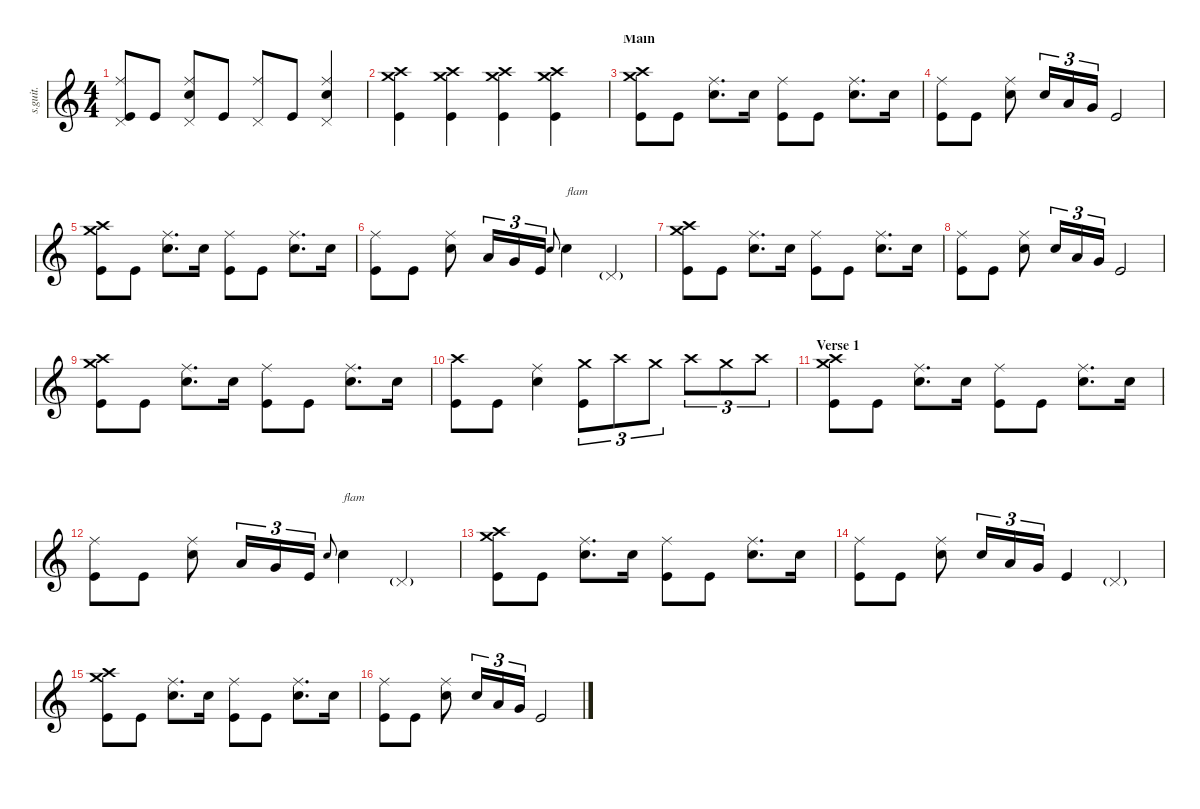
\defaultSystemsLayout 4
\hideDynamics
\bracketExtendMode nobrackets
\track ("Dave Grohl" "s.guit.") {instrument percussion}
\staff {score}
\articulation defaults
\ts (4 4)
\tempo (210 hide)
\clef g2
\ks c
("Pedal Hi-Hat (hit)" "Ride (middle)" "Kick (hit)").8{lyrics (0 "") lyrics (1 "") lyrics (2 "") lyrics (3 "") lyrics (4 "") dy f} "Kick (hit)".8{lyrics (0 "") lyrics (1 "") lyrics (2 "") lyrics (3 "") lyrics (4 "")} ("Pedal Hi-Hat (hit)" "Ride (middle)" "Snare (hit) 2").8{lyrics (0 "") lyrics (1 "") lyrics (2 "") lyrics (3 "") lyrics (4 "")} "Kick (hit)".8{lyrics (0 "") lyrics (1 "") lyrics (2 "") lyrics (3 "") lyrics (4 "")} ("Pedal Hi-Hat (hit)" "Ride (middle)").8{lyrics (0 "") lyrics (1 "") lyrics (2 "") lyrics (3 "") lyrics (4 "")} "Kick (hit)".8{lyrics (0 "") lyrics (1 "") lyrics (2 "") lyrics (3 "") lyrics (4 "")} ("Pedal Hi-Hat (hit)" "Ride (middle)" "Snare (hit) 2").4{lyrics (0 "") lyrics (1 "") lyrics (2 "") lyrics (3 "") lyrics (4 "")} |
\tempo (105 hide)
("Crash high (hit)" "Crash medium (hit)" "Kick (hit)").4{lyrics (0 "") lyrics (1 "") lyrics (2 "") lyrics (3 "") lyrics (4 "") dy mf} ("Crash high (hit)" "Crash medium (hit)" "Kick (hit)").4{lyrics (0 "") lyrics (1 "") lyrics (2 "") lyrics (3 "") lyrics (4 "")} ("Crash high (hit)" "Crash medium (hit)" "Kick (hit)").4{lyrics (0 "") lyrics (1 "") lyrics (2 "") lyrics (3 "") lyrics (4 "")} ("Crash high (hit)" "Crash medium (hit)" "Kick (hit)").4{lyrics (0 "") lyrics (1 "") lyrics (2 "") lyrics (3 "") lyrics (4 "")} |
\section ("" "Main")
("Crash high (hit)" "Crash medium (hit)" "Kick (hit)").8{lyrics (0 "") lyrics (1 "") lyrics (2 "") lyrics (3 "") lyrics (4 "")} "Kick (hit)".8{lyrics (0 "") lyrics (1 "") lyrics (2 "") lyrics (3 "") lyrics (4 "") dy f} ("Ride (middle)" "Snare (hit) 2").8{d lyrics (0 "") lyrics (1 "") lyrics (2 "") lyrics (3 "") lyrics (4 "")} "Snare (hit) 2".16{lyrics (0 "") lyrics (1 "") lyrics (2 "") lyrics (3 "") lyrics (4 "")} ("Kick (hit)" "Ride (middle)").8{lyrics (0 "") lyrics (1 "") lyrics (2 "") lyrics (3 "") lyrics (4 "") dy mf} "Kick (hit)".8{lyrics (0 "") lyrics (1 "") lyrics (2 "") lyrics (3 "") lyrics (4 "") dy f} ("Ride (middle)" "Snare (hit) 2").8{d lyrics (0 "") lyrics (1 "") lyrics (2 "") lyrics (3 "") lyrics (4 "")} "Snare (hit) 2".16{lyrics (0 "") lyrics (1 "") lyrics (2 "") lyrics (3 "") lyrics (4 "")} |
("Kick (hit)" "Ride (middle)").8{lyrics (0 "") lyrics (1 "") lyrics (2 "") lyrics (3 "") lyrics (4 "") dy mf} "Kick (hit)".8{lyrics (0 "") lyrics (1 "") lyrics (2 "") lyrics (3 "") lyrics (4 "") dy f} ("Ride (middle)" "Snare (hit) 2").8{lyrics (0 "") lyrics (1 "") lyrics (2 "") lyrics (3 "") lyrics (4 "")} "Snare (hit) 2".16{tu (3 2) lyrics (0 "") lyrics (1 "") lyrics (2 "") lyrics (3 "") lyrics (4 "")} "Low Floor Tom (hit)".16{tu (3 2) lyrics (0 "") lyrics (1 "") lyrics (2 "") lyrics (3 "") lyrics (4 "")} "Very Low Tom (hit)".16{tu (3 2) lyrics (0 "") lyrics (1 "") lyrics (2 "") lyrics (3 "") lyrics (4 "")} "Kick (hit)".2{lyrics (0 "") lyrics (1 "") lyrics (2 "") lyrics (3 "") lyrics (4 "")} |
("Crash high (hit)" "Crash medium (hit)" "Kick (hit)").8{lyrics (0 "") lyrics (1 "") lyrics (2 "") lyrics (3 "") lyrics (4 "") dy mf} "Kick (hit)".8{lyrics (0 "") lyrics (1 "") lyrics (2 "") lyrics (3 "") lyrics (4 "") dy f} ("Ride (middle)" "Snare (hit) 2").8{d lyrics (0 "") lyrics (1 "") lyrics (2 "") lyrics (3 "") lyrics (4 "")} "Snare (hit) 2".16{lyrics (0 "") lyrics (1 "") lyrics (2 "") lyrics (3 "") lyrics (4 "")} ("Kick (hit)" "Ride (middle)").8{lyrics (0 "") lyrics (1 "") lyrics (2 "") lyrics (3 "") lyrics (4 "") dy mf} "Kick (hit)".8{lyrics (0 "") lyrics (1 "") lyrics (2 "") lyrics (3 "") lyrics (4 "") dy f} ("Ride (middle)" "Snare (hit) 2").8{d lyrics (0 "") lyrics (1 "") lyrics (2 "") lyrics (3 "") lyrics (4 "")} "Snare (hit) 2".16{lyrics (0 "") lyrics (1 "") lyrics (2 "") lyrics (3 "") lyrics (4 "")} |
("Kick (hit)" "Ride (middle)").8{lyrics (0 "") lyrics (1 "") lyrics (2 "") lyrics (3 "") lyrics (4 "") dy mf} "Kick (hit)".8{lyrics (0 "") lyrics (1 "") lyrics (2 "") lyrics (3 "") lyrics (4 "") dy f} ("Ride (middle)" "Snare (hit) 2").8{lyrics (0 "") lyrics (1 "") lyrics (2 "") lyrics (3 "") lyrics (4 "")} "Low Floor Tom (hit)".16{tu (3 2) lyrics (0 "") lyrics (1 "") lyrics (2 "") lyrics (3 "") lyrics (4 "")} "Very Low Tom (hit)".16{tu (3 2) lyrics (0 "") lyrics (1 "") lyrics (2 "") lyrics (3 "") lyrics (4 "")} "Kick (hit)".16{tu (3 2) lyrics (0 "") lyrics (1 "") lyrics (2 "") lyrics (3 "") lyrics (4 "")} "Snare (hit) 2".8{lyrics (0 "") lyrics (1 "") lyrics (2 "") lyrics (3 "") lyrics (4 "") gr onbeat} "Snare (hit) 2".4{txt "flam" lyrics (0 "") lyrics (1 "") lyrics (2 "") lyrics (3 "") lyrics (4 "")} "Pedal Hi-Hat (hit)"{g}.4{lyrics (0 "") lyrics (1 "") lyrics (2 "") lyrics (3 "") lyrics (4 "")} |
("Crash high (hit)" "Crash medium (hit)" "Kick (hit)").8{lyrics (0 "") lyrics (1 "") lyrics (2 "") lyrics (3 "") lyrics (4 "") dy mf} "Kick (hit)".8{lyrics (0 "") lyrics (1 "") lyrics (2 "") lyrics (3 "") lyrics (4 "") dy f} ("Ride (middle)" "Snare (hit) 2").8{d lyrics (0 "") lyrics (1 "") lyrics (2 "") lyrics (3 "") lyrics (4 "")} "Snare (hit) 2".16{lyrics (0 "") lyrics (1 "") lyrics (2 "") lyrics (3 "") lyrics (4 "")} ("Kick (hit)" "Ride (middle)").8{lyrics (0 "") lyrics (1 "") lyrics (2 "") lyrics (3 "") lyrics (4 "") dy mf} "Kick (hit)".8{lyrics (0 "") lyrics (1 "") lyrics (2 "") lyrics (3 "") lyrics (4 "") dy f} ("Ride (middle)" "Snare (hit) 2").8{d lyrics (0 "") lyrics (1 "") lyrics (2 "") lyrics (3 "") lyrics (4 "")} "Snare (hit) 2".16{lyrics (0 "") lyrics (1 "") lyrics (2 "") lyrics (3 "") lyrics (4 "")} |
("Kick (hit)" "Ride (middle)").8{lyrics (0 "") lyrics (1 "") lyrics (2 "") lyrics (3 "") lyrics (4 "") dy mf} "Kick (hit)".8{lyrics (0 "") lyrics (1 "") lyrics (2 "") lyrics (3 "") lyrics (4 "") dy f} ("Ride (middle)" "Snare (hit) 2").8{lyrics (0 "") lyrics (1 "") lyrics (2 "") lyrics (3 "") lyrics (4 "")} "Snare (hit) 2".16{tu (3 2) lyrics (0 "") lyrics (1 "") lyrics (2 "") lyrics (3 "") lyrics (4 "")} "Low Floor Tom (hit)".16{tu (3 2) lyrics (0 "") lyrics (1 "") lyrics (2 "") lyrics (3 "") lyrics (4 "")} "Very Low Tom (hit)".16{tu (3 2) lyrics (0 "") lyrics (1 "") lyrics (2 "") lyrics (3 "") lyrics (4 "")} "Kick (hit)".2{lyrics (0 "") lyrics (1 "") lyrics (2 "") lyrics (3 "") lyrics (4 "")} |
("Crash high (hit)" "Crash medium (hit)" "Kick (hit)").8{lyrics (0 "") lyrics (1 "") lyrics (2 "") lyrics (3 "") lyrics (4 "") dy mf} "Kick (hit)".8{lyrics (0 "") lyrics (1 "") lyrics (2 "") lyrics (3 "") lyrics (4 "") dy f} ("Ride (middle)" "Snare (hit) 2").8{d lyrics (0 "") lyrics (1 "") lyrics (2 "") lyrics (3 "") lyrics (4 "")} "Snare (hit) 2".16{lyrics (0 "") lyrics (1 "") lyrics (2 "") lyrics (3 "") lyrics (4 "")} ("Kick (hit)" "Ride (middle)").8{lyrics (0 "") lyrics (1 "") lyrics (2 "") lyrics (3 "") lyrics (4 "")} "Kick (hit)".8{lyrics (0 "") lyrics (1 "") lyrics (2 "") lyrics (3 "") lyrics (4 "")} ("Ride (middle)" "Snare (hit) 2").8{d lyrics (0 "") lyrics (1 "") lyrics (2 "") lyrics (3 "") lyrics (4 "")} "Snare (hit) 2".16{lyrics (0 "") lyrics (1 "") lyrics (2 "") lyrics (3 "") lyrics (4 "")} |
("Crash high (hit)" "Kick (hit)").8{lyrics (0 "") lyrics (1 "") lyrics (2 "") lyrics (3 "") lyrics (4 "") dy mf} "Kick (hit)".8{lyrics (0 "") lyrics (1 "") lyrics (2 "") lyrics (3 "") lyrics (4 "") dy f} ("Ride (middle)" "Snare (hit) 2").4{lyrics (0 "") lyrics (1 "") lyrics (2 "") lyrics (3 "") lyrics (4 "")} ("Crash medium (hit)" "Kick (hit)").8{tu (3 2) lyrics (0 "") lyrics (1 "") lyrics (2 "") lyrics (3 "") lyrics (4 "") dy mf} "Crash high (hit)".8{tu (3 2) lyrics (0 "") lyrics (1 "") lyrics (2 "") lyrics (3 "") lyrics (4 "")} "Crash medium (hit)".8{tu (3 2) lyrics (0 "") lyrics (1 "") lyrics (2 "") lyrics (3 "") lyrics (4 "")} "Crash high (hit)".8{tu (3 2) lyrics (0 "") lyrics (1 "") lyrics (2 "") lyrics (3 "") lyrics (4 "")} "Crash medium (hit)".8{tu (3 2) lyrics (0 "") lyrics (1 "") lyrics (2 "") lyrics (3 "") lyrics (4 "")} "Crash high (hit)".8{tu (3 2) lyrics (0 "") lyrics (1 "") lyrics (2 "") lyrics (3 "") lyrics (4 "")} |
\section ("" "Verse 1")
("Crash high (hit)" "Crash medium (hit)" "Kick (hit)").8{lyrics (0 "") lyrics (1 "") lyrics (2 "") lyrics (3 "") lyrics (4 "")} "Kick (hit)".8{lyrics (0 "") lyrics (1 "") lyrics (2 "") lyrics (3 "") lyrics (4 "") dy f} ("Ride (middle)" "Snare (hit) 2").8{d lyrics (0 "") lyrics (1 "") lyrics (2 "") lyrics (3 "") lyrics (4 "")} "Snare (hit) 2".16{lyrics (0 "") lyrics (1 "") lyrics (2 "") lyrics (3 "") lyrics (4 "")} ("Ride (middle)" "Kick (hit)").8{lyrics (0 "") lyrics (1 "") lyrics (2 "") lyrics (3 "") lyrics (4 "")} "Kick (hit)".8{lyrics (0 "") lyrics (1 "") lyrics (2 "") lyrics (3 "") lyrics (4 "")} ("Ride (middle)" "Snare (hit) 2").8{d lyrics (0 "") lyrics (1 "") lyrics (2 "") lyrics (3 "") lyrics (4 "")} "Snare (hit) 2".16{lyrics (0 "") lyrics (1 "") lyrics (2 "") lyrics (3 "") lyrics (4 "")} |
("Ride (middle)" "Kick (hit)").8{lyrics (0 "") lyrics (1 "") lyrics (2 "") lyrics (3 "") lyrics (4 "")} "Kick (hit)".8{lyrics (0 "") lyrics (1 "") lyrics (2 "") lyrics (3 "") lyrics (4 "")} ("Ride (middle)" "Snare (hit) 2").8{lyrics (0 "") lyrics (1 "") lyrics (2 "") lyrics (3 "") lyrics (4 "")} "Low Floor Tom (hit)".16{tu (3 2) lyrics (0 "") lyrics (1 "") lyrics (2 "") lyrics (3 "") lyrics (4 "")} "Very Low Tom (hit)".16{tu (3 2) lyrics (0 "") lyrics (1 "") lyrics (2 "") lyrics (3 "") lyrics (4 "")} "Kick (hit)".16{tu (3 2) lyrics (0 "") lyrics (1 "") lyrics (2 "") lyrics (3 "") lyrics (4 "")} "Snare (hit) 2".8{lyrics (0 "") lyrics (1 "") lyrics (2 "") lyrics (3 "") lyrics (4 "") gr onbeat} "Snare (hit) 2".4{txt "flam" lyrics (0 "") lyrics (1 "") lyrics (2 "") lyrics (3 "") lyrics (4 "")} "Pedal Hi-Hat (hit)"{g}.4{lyrics (0 "") lyrics (1 "") lyrics (2 "") lyrics (3 "") lyrics (4 "")} |
("Crash high (hit)" "Crash medium (hit)" "Kick (hit)").8{lyrics (0 "") lyrics (1 "") lyrics (2 "") lyrics (3 "") lyrics (4 "") dy mf} "Kick (hit)".8{lyrics (0 "") lyrics (1 "") lyrics (2 "") lyrics (3 "") lyrics (4 "") dy f} ("Ride (middle)" "Snare (hit) 2").8{d lyrics (0 "") lyrics (1 "") lyrics (2 "") lyrics (3 "") lyrics (4 "")} "Snare (hit) 2".16{lyrics (0 "") lyrics (1 "") lyrics (2 "") lyrics (3 "") lyrics (4 "")} ("Ride (middle)" "Kick (hit)").8{lyrics (0 "") lyrics (1 "") lyrics (2 "") lyrics (3 "") lyrics (4 "")} "Kick (hit)".8{lyrics (0 "") lyrics (1 "") lyrics (2 "") lyrics (3 "") lyrics (4 "")} ("Ride (middle)" "Snare (hit) 2").8{d lyrics (0 "") lyrics (1 "") lyrics (2 "") lyrics (3 "") lyrics (4 "")} "Snare (hit) 2".16{lyrics (0 "") lyrics (1 "") lyrics (2 "") lyrics (3 "") lyrics (4 "")} |
("Ride (middle)" "Kick (hit)").8{lyrics (0 "") lyrics (1 "") lyrics (2 "") lyrics (3 "") lyrics (4 "")} "Kick (hit)".8{lyrics (0 "") lyrics (1 "") lyrics (2 "") lyrics (3 "") lyrics (4 "")} ("Ride (middle)" "Snare (hit) 2").8{lyrics (0 "") lyrics (1 "") lyrics (2 "") lyrics (3 "") lyrics (4 "")} "Snare (hit) 2".16{tu (3 2) lyrics (0 "") lyrics (1 "") lyrics (2 "") lyrics (3 "") lyrics (4 "")} "Low Floor Tom (hit)".16{tu (3 2) lyrics (0 "") lyrics (1 "") lyrics (2 "") lyrics (3 "") lyrics (4 "")} "Very Low Tom (hit)".16{tu (3 2) lyrics (0 "") lyrics (1 "") lyrics (2 "") lyrics (3 "") lyrics (4 "")} "Kick (hit)".4{lyrics (0 "") lyrics (1 "") lyrics (2 "") lyrics (3 "") lyrics (4 "")} "Pedal Hi-Hat (hit)"{g}.4{lyrics (0 "") lyrics (1 "") lyrics (2 "") lyrics (3 "") lyrics (4 "")} |
("Crash high (hit)" "Crash medium (hit)" "Kick (hit)").8{lyrics (0 "") lyrics (1 "") lyrics (2 "") lyrics (3 "") lyrics (4 "") dy mf} "Kick (hit)".8{lyrics (0 "") lyrics (1 "") lyrics (2 "") lyrics (3 "") lyrics (4 "") dy f} ("Ride (middle)" "Snare (hit) 2").8{d lyrics (0 "") lyrics (1 "") lyrics (2 "") lyrics (3 "") lyrics (4 "")} "Snare (hit) 2".16{lyrics (0 "") lyrics (1 "") lyrics (2 "") lyrics (3 "") lyrics (4 "")} ("Ride (middle)" "Kick (hit)").8{lyrics (0 "") lyrics (1 "") lyrics (2 "") lyrics (3 "") lyrics (4 "")} "Kick (hit)".8{lyrics (0 "") lyrics (1 "") lyrics (2 "") lyrics (3 "") lyrics (4 "")} ("Ride (middle)" "Snare (hit) 2").8{d lyrics (0 "") lyrics (1 "") lyrics (2 "") lyrics (3 "") lyrics (4 "")} "Snare (hit) 2".16{lyrics (0 "") lyrics (1 "") lyrics (2 "") lyrics (3 "") lyrics (4 "")} |
("Ride (middle)" "Kick (hit)").8{lyrics (0 "") lyrics (1 "") lyrics (2 "") lyrics (3 "") lyrics (4 "")} "Kick (hit)".8{lyrics (0 "") lyrics (1 "") lyrics (2 "") lyrics (3 "") lyrics (4 "")} ("Ride (middle)" "Snare (hit) 2").8{lyrics (0 "") lyrics (1 "") lyrics (2 "") lyrics (3 "") lyrics (4 "")} "Snare (hit) 2".16{tu (3 2) lyrics (0 "") lyrics (1 "") lyrics (2 "") lyrics (3 "") lyrics (4 "")} "Low Floor Tom (hit)".16{tu (3 2) lyrics (0 "") lyrics (1 "") lyrics (2 "") lyrics (3 "") lyrics (4 "")} "Very Low Tom (hit)".16{tu (3 2) lyrics (0 "") lyrics (1 "") lyrics (2 "") lyrics (3 "") lyrics (4 "")} "Kick (hit)".2{lyrics (0 "") lyrics (1 "") lyrics (2 "") lyrics (3 "") lyrics (4 "")}
